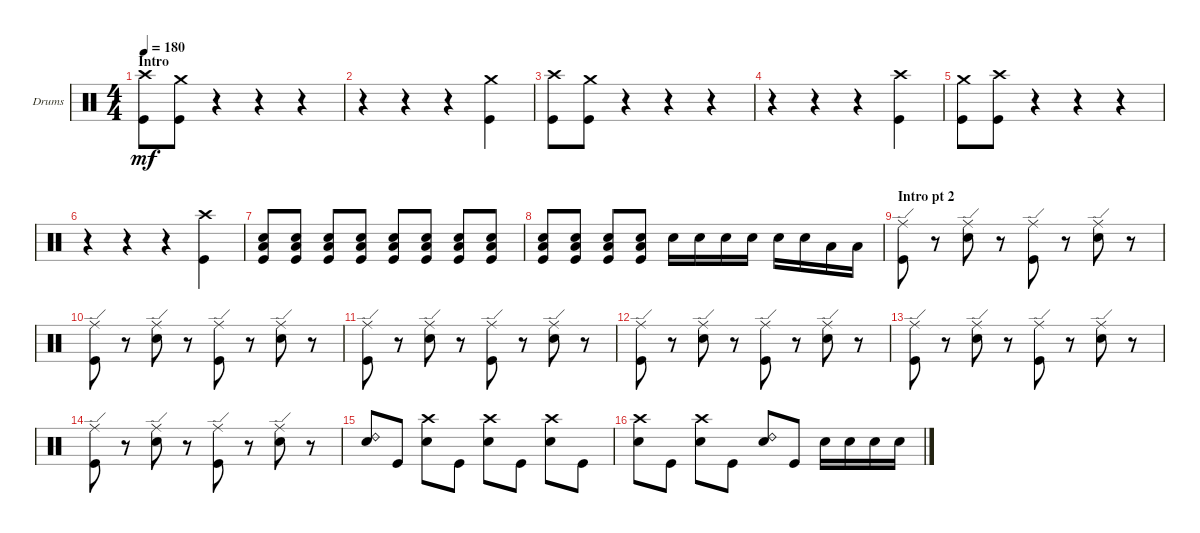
\bracketExtendMode groupsimilarinstruments
\firstSystemTrackNameOrientation horizontal
\otherSystemsTrackNameOrientation horizontal
\track ("Drumkit" "Drums") {instrument percussion}
\staff {score}
\articulation defaults
\ts (4 4)
\section ("" "Intro")
\tempo 180
\clef neutral
\ks c
("Kick (hit)" "Crash high (hit)").8{dy mf} ("Kick (hit)" "Crash medium (hit)").8 r.4 r.4 r.4 |
r.4 r.4 r.4 ("Kick (hit)" "Crash medium (hit)").4 |
("Kick (hit)" "Crash high (hit)").8 ("Kick (hit)" "Crash medium (hit)").8 r.4 r.4 r.4 |
r.4 r.4 r.4 ("Kick (hit)" "Crash high (hit)").4 |
("Kick (hit)" "Crash medium (hit)").8 ("Kick (hit)" "Crash high (hit)").8 r.4 r.4 r.4 |
r.4 r.4 r.4 ("Kick (hit)" "Crash high (hit)").4 |
("Kick (hit)" "Snare (hit) 2" "Low Tom (hit)").8 ("Kick (hit)" "Snare (hit) 2" "Low Tom (hit)").8 ("Kick (hit)" "Snare (hit) 2" "Low Tom (hit)").8 ("Kick (hit)" "Snare (hit) 2" "Low Tom (hit)").8 ("Kick (hit)" "Snare (hit) 2" "Low Tom (hit)").8 ("Kick (hit)" "Snare (hit) 2" "Low Tom (hit)").8 ("Kick (hit)" "Snare (hit) 2" "Low Tom (hit)").8 ("Kick (hit)" "Snare (hit) 2" "Low Tom (hit)").8 |
("Kick (hit)" "Snare (hit) 2" "Low Tom (hit)").8 ("Kick (hit)" "Snare (hit) 2" "Low Tom (hit)").8 ("Kick (hit)" "Snare (hit) 2" "Low Tom (hit)").8 ("Kick (hit)" "Snare (hit) 2" "Low Tom (hit)").8 "Snare (hit) 2".16 "Snare (hit) 2".16 "Snare (hit) 2".16 "Snare (hit) 2".16 "Snare (hit) 2".16 "Snare (hit) 2".16 "Low Tom (hit)".16 "Low Tom (hit)".16 |
\section ("" "Intro pt 2")
("Kick (hit)" "Ride (edge)").8 r.8 ("Snare (hit) 2" "Ride (edge)").8 r.8 ("Kick (hit)" "Ride (edge)").8 r.8 ("Snare (hit) 2" "Ride (edge)").8 r.8 |
("Kick (hit)" "Ride (edge)").8 r.8 ("Snare (hit) 2" "Ride (edge)").8 r.8 ("Kick (hit)" "Ride (edge)").8 r.8 ("Snare (hit) 2" "Ride (edge)").8 r.8 |
("Kick (hit)" "Ride (edge)").8 r.8 ("Snare (hit) 2" "Ride (edge)").8 r.8 ("Kick (hit)" "Ride (edge)").8 r.8 ("Snare (hit) 2" "Ride (edge)").8 r.8 |
("Kick (hit)" "Ride (edge)").8 r.8 ("Snare (hit) 2" "Ride (edge)").8 r.8 ("Kick (hit)" "Ride (edge)").8 r.8 ("Snare (hit) 2" "Ride (edge)").8 r.8 |
("Kick (hit)" "Ride (edge)").8 r.8 ("Snare (hit) 2" "Ride (edge)").8 r.8 ("Kick (hit)" "Ride (edge)").8 r.8 ("Snare (hit) 2" "Ride (edge)").8 r.8 |
("Kick (hit)" "Ride (edge)").8 r.8 ("Snare (hit) 2" "Ride (edge)").8 r.8 ("Kick (hit)" "Ride (edge)").8 r.8 ("Snare (hit) 2" "Ride (edge)").8 r.8 |
("Snare (hit) 2" "Ride (bell) 2").8 "Kick (hit)".8 ("Snare (hit) 2" "Crash high (hit)").8 "Kick (hit)".8 ("Snare (hit) 2" "Crash high (hit)").8 "Kick (hit)".8 ("Snare (hit) 2" "Crash high (hit)").8 "Kick (hit)".8 |
("Snare (hit) 2" "Crash high (hit)").8 "Kick (hit)".8 ("Snare (hit) 2" "Crash high (hit)").8 "Kick (hit)".8 ("Snare (hit) 2" "Ride (bell) 2").8 "Kick (hit)".8 "Snare (hit) 2".16 "Snare (hit) 2".16 "Snare (hit) 2".16 "Snare (hit) 2".16
